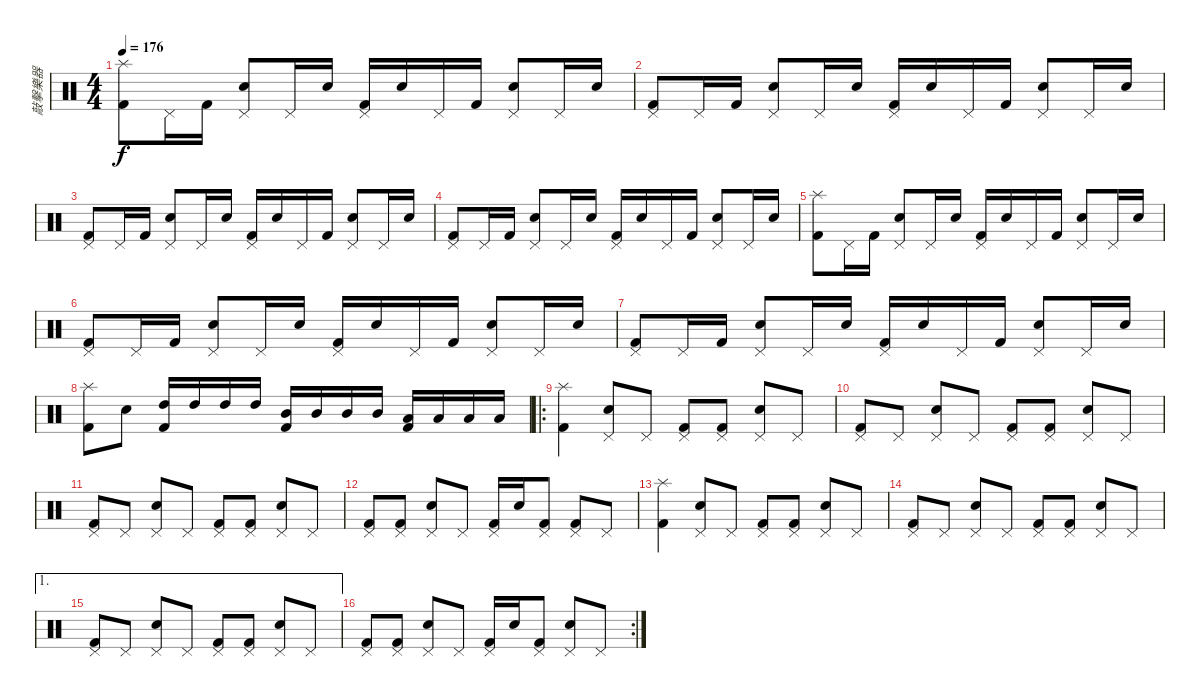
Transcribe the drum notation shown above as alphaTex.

\track ("敲擊樂器" "敲擊樂器") {instrument percussion}
\staff {score}
\articulation defaults
\ts (4 4)
\tempo 176
\clef neutral
\ks c
("Splash (hit)" "Kick (hit) 2").8{dy f} "Pedal Hi-Hat (hit)".16 "Kick (hit) 2".16 ("Pedal Hi-Hat (hit)" "Snare (hit) 2").8 "Pedal Hi-Hat (hit)".16 "Snare (hit) 2".16 ("Pedal Hi-Hat (hit)" "Kick (hit) 2").16 "Snare (hit) 2".16 "Pedal Hi-Hat (hit)".16 "Kick (hit) 2".16 ("Pedal Hi-Hat (hit)" "Snare (hit) 2").8 "Pedal Hi-Hat (hit)".16 "Snare (hit) 2".16 |
("Pedal Hi-Hat (hit)" "Kick (hit) 2").8 "Pedal Hi-Hat (hit)".16 "Kick (hit) 2".16 ("Pedal Hi-Hat (hit)" "Snare (hit) 2").8 "Pedal Hi-Hat (hit)".16 "Snare (hit) 2".16 ("Pedal Hi-Hat (hit)" "Kick (hit) 2").16 "Snare (hit) 2".16 "Pedal Hi-Hat (hit)".16 "Kick (hit) 2".16 ("Pedal Hi-Hat (hit)" "Snare (hit) 2").8 "Pedal Hi-Hat (hit)".16 "Snare (hit) 2".16 |
("Pedal Hi-Hat (hit)" "Kick (hit) 2").8 "Pedal Hi-Hat (hit)".16 "Kick (hit) 2".16 ("Pedal Hi-Hat (hit)" "Snare (hit) 2").8 "Pedal Hi-Hat (hit)".16 "Snare (hit) 2".16 ("Pedal Hi-Hat (hit)" "Kick (hit) 2").16 "Snare (hit) 2".16 "Pedal Hi-Hat (hit)".16 "Kick (hit) 2".16 ("Pedal Hi-Hat (hit)" "Snare (hit) 2").8 "Pedal Hi-Hat (hit)".16 "Snare (hit) 2".16 |
("Pedal Hi-Hat (hit)" "Kick (hit) 2").8 "Pedal Hi-Hat (hit)".16 "Kick (hit) 2".16 ("Pedal Hi-Hat (hit)" "Snare (hit) 2").8 "Pedal Hi-Hat (hit)".16 "Snare (hit) 2".16 ("Pedal Hi-Hat (hit)" "Kick (hit) 2").16 "Snare (hit) 2".16 "Pedal Hi-Hat (hit)".16 "Kick (hit) 2".16 ("Pedal Hi-Hat (hit)" "Snare (hit) 2").8 "Pedal Hi-Hat (hit)".16 "Snare (hit) 2".16 |
("Splash (hit)" "Kick (hit) 2").8 "Pedal Hi-Hat (hit)".16 "Kick (hit) 2".16 ("Pedal Hi-Hat (hit)" "Snare (hit) 2").8 "Pedal Hi-Hat (hit)".16 "Snare (hit) 2".16 ("Pedal Hi-Hat (hit)" "Kick (hit) 2").16 "Snare (hit) 2".16 "Pedal Hi-Hat (hit)".16 "Kick (hit) 2".16 ("Pedal Hi-Hat (hit)" "Snare (hit) 2").8 "Pedal Hi-Hat (hit)".16 "Snare (hit) 2".16 |
("Pedal Hi-Hat (hit)" "Kick (hit) 2").8 "Pedal Hi-Hat (hit)".16 "Kick (hit) 2".16 ("Pedal Hi-Hat (hit)" "Snare (hit) 2").8 "Pedal Hi-Hat (hit)".16 "Snare (hit) 2".16 ("Pedal Hi-Hat (hit)" "Kick (hit) 2").16 "Snare (hit) 2".16 "Pedal Hi-Hat (hit)".16 "Kick (hit) 2".16 ("Pedal Hi-Hat (hit)" "Snare (hit) 2").8 "Pedal Hi-Hat (hit)".16 "Snare (hit) 2".16 |
("Pedal Hi-Hat (hit)" "Kick (hit) 2").8 "Pedal Hi-Hat (hit)".16 "Kick (hit) 2".16 ("Pedal Hi-Hat (hit)" "Snare (hit) 2").8 "Pedal Hi-Hat (hit)".16 "Snare (hit) 2".16 ("Pedal Hi-Hat (hit)" "Kick (hit) 2").16 "Snare (hit) 2".16 "Pedal Hi-Hat (hit)".16 "Kick (hit) 2".16 ("Pedal Hi-Hat (hit)" "Snare (hit) 2").8 "Pedal Hi-Hat (hit)".16 "Snare (hit) 2".16 |
("Splash (hit)" "Kick (hit) 2").8 "Snare (hit) 2".8 ("High Tom (hit)" "Kick (hit) 2").16 "High Tom (hit)".16 "High Tom (hit)".16 "High Tom (hit)".16 ("Kick (hit) 2" "Mid Tom (hit)").16 "Mid Tom (hit)".16 "Mid Tom (hit)".16 "Mid Tom (hit)".16 ("Low Tom (hit)" "Kick (hit) 2").16 "Low Tom (hit)".16 "Low Tom (hit)".16 "Low Tom (hit)".16 |
\ro
("Splash (hit)" "Kick (hit) 2").4 ("Pedal Hi-Hat (hit)" "Snare (hit) 2").8 "Pedal Hi-Hat (hit)".8 ("Pedal Hi-Hat (hit)" "Kick (hit) 2").8 ("Pedal Hi-Hat (hit)" "Kick (hit) 2").8 ("Pedal Hi-Hat (hit)" "Snare (hit) 2").8 "Pedal Hi-Hat (hit)".8 |
("Pedal Hi-Hat (hit)" "Kick (hit) 2").8 "Pedal Hi-Hat (hit)".8 ("Pedal Hi-Hat (hit)" "Snare (hit) 2").8 "Pedal Hi-Hat (hit)".8 ("Pedal Hi-Hat (hit)" "Kick (hit) 2").8 ("Pedal Hi-Hat (hit)" "Kick (hit) 2").8 ("Pedal Hi-Hat (hit)" "Snare (hit) 2").8 "Pedal Hi-Hat (hit)".8 |
("Pedal Hi-Hat (hit)" "Kick (hit) 2").8 "Pedal Hi-Hat (hit)".8 ("Pedal Hi-Hat (hit)" "Snare (hit) 2").8 "Pedal Hi-Hat (hit)".8 ("Pedal Hi-Hat (hit)" "Kick (hit) 2").8 ("Pedal Hi-Hat (hit)" "Kick (hit) 2").8 ("Pedal Hi-Hat (hit)" "Snare (hit) 2").8 "Pedal Hi-Hat (hit)".8 |
("Pedal Hi-Hat (hit)" "Kick (hit) 2").8 ("Pedal Hi-Hat (hit)" "Kick (hit) 2").8 ("Pedal Hi-Hat (hit)" "Snare (hit) 2").8 "Pedal Hi-Hat (hit)".8 ("Pedal Hi-Hat (hit)" "Kick (hit) 2").16 "Snare (hit) 2".16 ("Pedal Hi-Hat (hit)" "Kick (hit) 2").8 ("Pedal Hi-Hat (hit)" "Kick (hit) 2").8 "Pedal Hi-Hat (hit)".8 |
("Splash (hit)" "Kick (hit) 2").4 ("Pedal Hi-Hat (hit)" "Snare (hit) 2").8 "Pedal Hi-Hat (hit)".8 ("Pedal Hi-Hat (hit)" "Kick (hit) 2").8 ("Pedal Hi-Hat (hit)" "Kick (hit) 2").8 ("Pedal Hi-Hat (hit)" "Snare (hit) 2").8 "Pedal Hi-Hat (hit)".8 |
("Pedal Hi-Hat (hit)" "Kick (hit) 2").8 "Pedal Hi-Hat (hit)".8 ("Pedal Hi-Hat (hit)" "Snare (hit) 2").8 "Pedal Hi-Hat (hit)".8 ("Pedal Hi-Hat (hit)" "Kick (hit) 2").8 ("Pedal Hi-Hat (hit)" "Kick (hit) 2").8 ("Pedal Hi-Hat (hit)" "Snare (hit) 2").8 "Pedal Hi-Hat (hit)".8 |
\ae 1
("Pedal Hi-Hat (hit)" "Kick (hit) 2").8 "Pedal Hi-Hat (hit)".8 ("Pedal Hi-Hat (hit)" "Snare (hit) 2").8 "Pedal Hi-Hat (hit)".8 ("Pedal Hi-Hat (hit)" "Kick (hit) 2").8 ("Pedal Hi-Hat (hit)" "Kick (hit) 2").8 ("Pedal Hi-Hat (hit)" "Snare (hit) 2").8 "Pedal Hi-Hat (hit)".8 |
\rc 2
("Pedal Hi-Hat (hit)" "Kick (hit) 2").8 ("Pedal Hi-Hat (hit)" "Kick (hit) 2").8 ("Pedal Hi-Hat (hit)" "Snare (hit) 2").8 "Pedal Hi-Hat (hit)".8 ("Pedal Hi-Hat (hit)" "Kick (hit) 2").16 "Snare (hit) 2".16 ("Kick (hit) 2" "Pedal Hi-Hat (hit)").8 ("Pedal Hi-Hat (hit)" "Snare (hit) 2").8 "Pedal Hi-Hat (hit)".8
